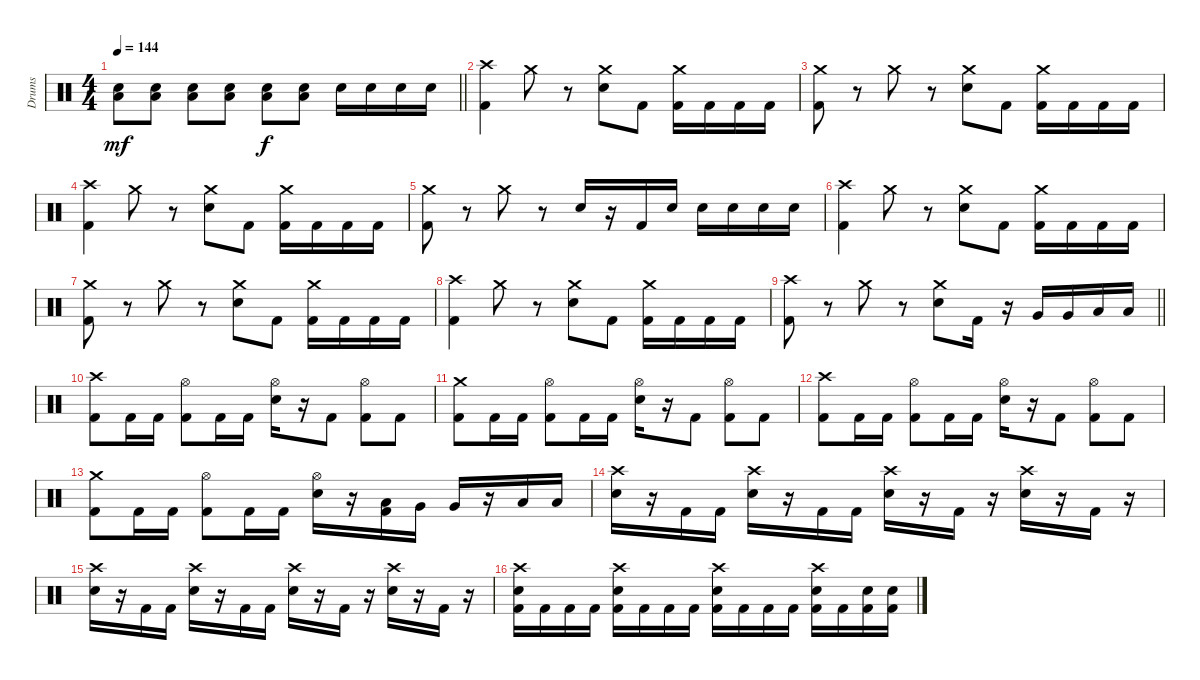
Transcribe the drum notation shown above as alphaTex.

\track ("Drums" "Drums") {instrument percussion}
\staff {score}
\articulation defaults
\ts (4 4)
\tempo 144
\clef neutral
\barLineRight lightlight
\ks c
("Snare (hit) 2" "Low Floor Tom (hit)").8{dy mf} ("Snare (hit) 2" "Low Floor Tom (hit)").8 ("Snare (hit) 2" "Low Floor Tom (hit)").8 ("Snare (hit) 2" "Low Floor Tom (hit)").8 ("Snare (hit) 2" "Low Floor Tom (hit)").8{dy f} ("Snare (hit) 2" "Low Floor Tom (hit)").8 "Snare (hit) 2".16 "Snare (hit) 2".16 "Snare (hit) 2".16 "Snare (hit) 2".16 |
\section ("" " ")
("Kick (hit) 2" "Crash high (hit)").4 "Crash medium (hit)".8 r.8 ("Snare (hit) 2" "Crash medium (hit)").8 "Kick (hit) 2".8 ("Kick (hit) 2" "Crash medium (hit)").16 "Kick (hit) 2".16 "Kick (hit) 2".16 "Kick (hit) 2".16 |
("Kick (hit) 2" "Crash medium (hit)").8 r.8 "Crash medium (hit)".8 r.8 ("Snare (hit) 2" "Crash medium (hit)").8 "Kick (hit) 2".8 ("Kick (hit) 2" "Crash medium (hit)").16 "Kick (hit) 2".16 "Kick (hit) 2".16 "Kick (hit) 2".16 |
("Kick (hit) 2" "Crash high (hit)").4 "Crash medium (hit)".8 r.8 ("Snare (hit) 2" "Crash medium (hit)").8 "Kick (hit) 2".8 ("Kick (hit) 2" "Crash medium (hit)").16 "Kick (hit) 2".16 "Kick (hit) 2".16 "Kick (hit) 2".16 |
("Kick (hit) 2" "Crash medium (hit)").8 r.8 "Crash medium (hit)".8 r.8 "Snare (hit) 2".16 r.16 "Kick (hit) 2".16 "Snare (hit) 2".16 "Snare (hit) 2".16 "Snare (hit) 2".16 "Snare (hit) 2".16 "Snare (hit) 2".16 |
("Kick (hit) 2" "Crash high (hit)").4 "Crash medium (hit)".8 r.8 ("Snare (hit) 2" "Crash medium (hit)").8 "Kick (hit) 2".8 ("Kick (hit) 2" "Crash medium (hit)").16 "Kick (hit) 2".16 "Kick (hit) 2".16 "Kick (hit) 2".16 |
("Kick (hit) 2" "Crash medium (hit)").8 r.8 "Crash medium (hit)".8 r.8 ("Snare (hit) 2" "Crash medium (hit)").8 "Kick (hit) 2".8 ("Kick (hit) 2" "Crash medium (hit)").16 "Kick (hit) 2".16 "Kick (hit) 2".16 "Kick (hit) 2".16 |
("Kick (hit) 2" "Crash high (hit)").4 "Crash medium (hit)".8 r.8 ("Snare (hit) 2" "Crash medium (hit)").8 "Kick (hit) 2".8 ("Kick (hit) 2" "Crash medium (hit)").16 "Kick (hit) 2".16 "Kick (hit) 2".16 "Kick (hit) 2".16 |
\barLineRight lightlight
("Kick (hit) 2" "Crash high (hit)").8 r.8 "Crash medium (hit)".8 r.8 ("Snare (hit) 2" "Crash medium (hit)").8 "Kick (hit) 2".16 r.16 "Very Low Tom (hit)".16 "Very Low Tom (hit)".16 "Low Floor Tom (hit)".16 "Low Floor Tom (hit)".16 |
\section ("" " ")
("Kick (hit) 2" "Crash high (hit)").8 "Kick (hit) 2".16 "Kick (hit) 2".16 ("Kick (hit) 2" "Hi-Hat (open)").8 "Kick (hit) 2".16 "Kick (hit) 2".16 ("Snare (hit) 2" "Hi-Hat (open)").16 r.16 "Kick (hit) 2".8 ("Kick (hit) 2" "Hi-Hat (open)").8 "Kick (hit) 2".8 |
("Kick (hit) 2" "Crash medium (hit)").8 "Kick (hit) 2".16 "Kick (hit) 2".16 ("Kick (hit) 2" "Hi-Hat (open)").8 "Kick (hit) 2".16 "Kick (hit) 2".16 ("Snare (hit) 2" "Hi-Hat (open)").16 r.16 "Kick (hit) 2".8 ("Kick (hit) 2" "Hi-Hat (open)").8 "Kick (hit) 2".8 |
("Kick (hit) 2" "Crash high (hit)").8 "Kick (hit) 2".16 "Kick (hit) 2".16 ("Kick (hit) 2" "Hi-Hat (open)").8 "Kick (hit) 2".16 "Kick (hit) 2".16 ("Snare (hit) 2" "Hi-Hat (open)").16 r.16 "Kick (hit) 2".8 ("Kick (hit) 2" "Hi-Hat (open)").8 "Kick (hit) 2".8 |
("Kick (hit) 2" "Crash medium (hit)").8 "Kick (hit) 2".16 "Kick (hit) 2".16 ("Kick (hit) 2" "Hi-Hat (open)").8 "Kick (hit) 2".16 "Kick (hit) 2".16 ("Snare (hit) 2" "Hi-Hat (open)").16 r.16 ("Kick (hit) 2" "Low Tom (hit)").16 "Very Low Tom (hit)".16 "Very Low Tom (hit)".16 r.16 "Low Floor Tom (hit)".16 "Low Floor Tom (hit)".16 |
("Snare (hit) 2" "Crash high (hit)").16 r.16 "Kick (hit) 2".16 "Kick (hit) 2".16 ("Snare (hit) 2" "Crash high (hit)").16 r.16 "Kick (hit) 2".16 "Kick (hit) 2".16 ("Snare (hit) 2" "Crash high (hit)").16 r.16 "Kick (hit) 2".16 r.16 ("Snare (hit) 2" "Crash high (hit)").16 r.16 "Kick (hit) 2".16 r.16 |
("Snare (hit) 2" "Crash high (hit)").16 r.16 "Kick (hit) 2".16 "Kick (hit) 2".16 ("Snare (hit) 2" "Crash high (hit)").16 r.16 "Kick (hit) 2".16 "Kick (hit) 2".16 ("Snare (hit) 2" "Crash high (hit)").16 r.16 "Kick (hit) 2".16 r.16 ("Snare (hit) 2" "Crash high (hit)").16 r.16 "Kick (hit) 2".16 r.16 |
("Kick (hit) 2" "Snare (hit) 2" "Crash high (hit)").16 "Kick (hit) 2".16 "Kick (hit) 2".16 "Kick (hit) 2".16 ("Kick (hit) 2" "Snare (hit) 2" "Crash high (hit)").16 "Kick (hit) 2".16 "Kick (hit) 2".16 "Kick (hit) 2".16 ("Kick (hit) 2" "Snare (hit) 2" "Crash high (hit)").16 "Kick (hit) 2".16 "Kick (hit) 2".16 "Kick (hit) 2".16 ("Kick (hit) 2" "Snare (hit) 2" "Crash high (hit)").16 "Kick (hit) 2".16 ("Kick (hit) 2" "Snare (hit) 2").16 ("Kick (hit) 2" "Snare (hit) 2").16
